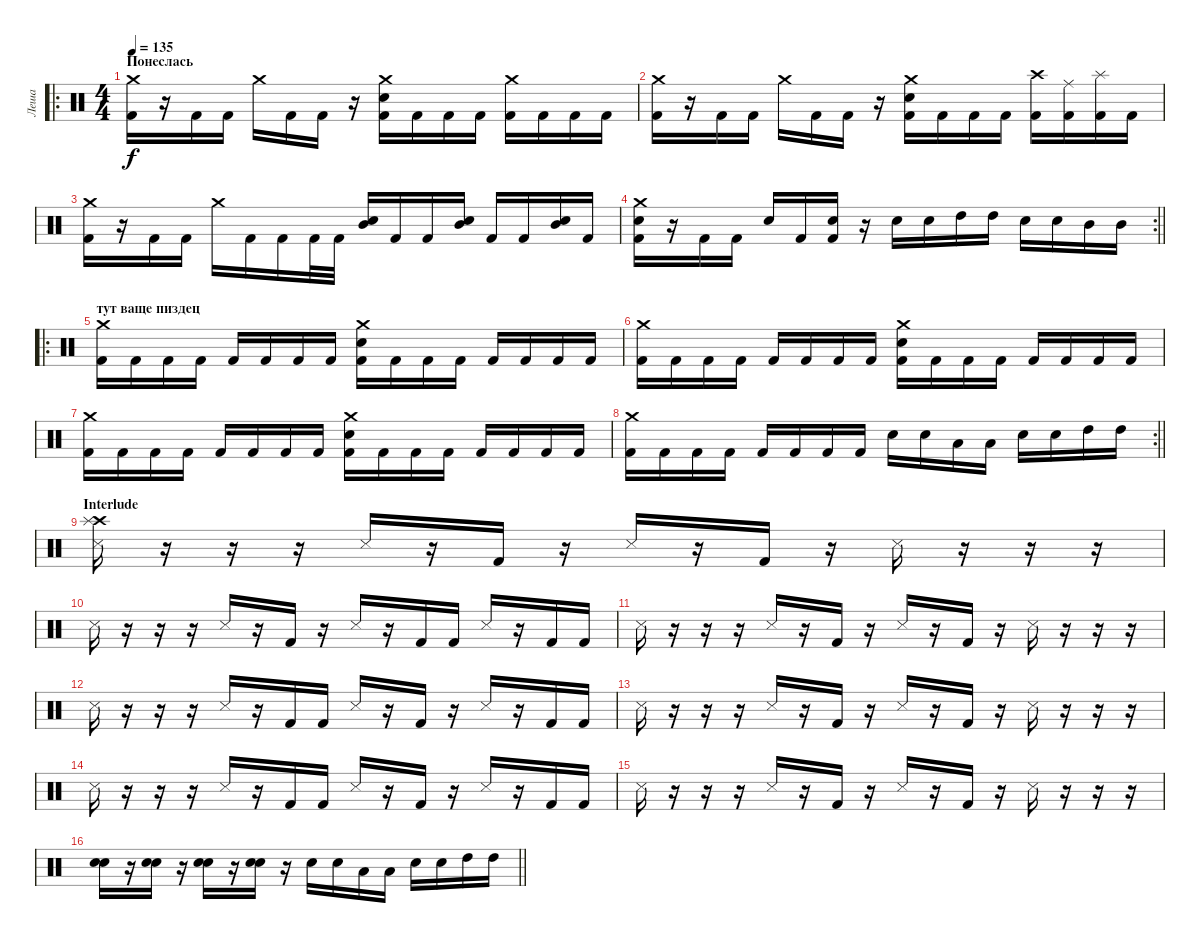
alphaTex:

\track ("Леша" "Леша") {instrument percussion}
\staff {score}
\articulation defaults
\ro
\ts (4 4)
\section ("" "Понеслась ")
\tempo 135
\clef neutral
\ks c
("Crash medium (hit)" "Kick (hit) 2").16{dy f} r.16 "Kick (hit) 2".16 "Kick (hit) 2".16 "Crash medium (hit)".16 "Kick (hit) 2".16 "Kick (hit) 2".16 r.16 ("Crash medium (hit)" "Electric Snare (hit)" "Kick (hit) 2").16 "Kick (hit) 2".16 "Kick (hit) 2".16 "Kick (hit) 2".16 ("Crash medium (hit)" "Kick (hit) 2").16 "Kick (hit) 2".16 "Kick (hit) 2".16 "Kick (hit) 2".16 |
("Crash medium (hit)" "Kick (hit) 2").16 r.16 "Kick (hit) 2".16 "Kick (hit) 2".16 "Crash medium (hit)".16 "Kick (hit) 2".16 "Kick (hit) 2".16 r.16 ("Crash medium (hit)" "Electric Snare (hit)" "Kick (hit) 2").16 "Kick (hit) 2".16 "Kick (hit) 2".16 "Kick (hit) 2".16 ("Crash high (hit)" "Kick (hit) 2").16 ("Ride (middle)" "Kick (hit) 2").16 ("Splash (hit)" "Kick (hit) 2").16 "Kick (hit) 2".16 |
("Crash medium (hit)" "Kick (hit) 2").16 r.16 "Kick (hit) 2".16 "Kick (hit) 2".16 "Crash medium (hit)".16 "Kick (hit) 2".16 "Kick (hit) 2".16 "Kick (hit) 2".32 "Kick (hit) 2".32 ("Mid Tom (hit)" "Electric Snare (hit)").16 "Kick (hit) 2".16 "Kick (hit) 2".16 ("Mid Tom (hit)" "Electric Snare (hit)").16 "Kick (hit) 2".16 "Kick (hit) 2".16 ("Mid Tom (hit)" "Electric Snare (hit)").16 "Kick (hit) 2".16 |
\rc 2
\barLineRight lightlight
("Crash medium (hit)" "Electric Snare (hit)" "Kick (hit) 2").16 r.16 "Kick (hit) 2".16 "Kick (hit) 2".16 "Electric Snare (hit)".16 "Kick (hit) 2".16 ("Electric Snare (hit)" "Kick (hit) 2").16 r.16 "Electric Snare (hit)".16 "Electric Snare (hit)".16 "High Tom (hit)".16 "High Tom (hit)".16 "Electric Snare (hit)".16 "Electric Snare (hit)".16 "Mid Tom (hit)".16 "Mid Tom (hit)".16 |
\ro
\section ("" "тут ваще пиздец")
("Crash medium (hit)" "Kick (hit) 2").16 "Kick (hit) 2".16 "Kick (hit) 2".16 "Kick (hit) 2".16 "Kick (hit) 2".16 "Kick (hit) 2".16 "Kick (hit) 2".16 "Kick (hit) 2".16 ("Crash medium (hit)" "Electric Snare (hit)" "Kick (hit) 2").16 "Kick (hit) 2".16 "Kick (hit) 2".16 "Kick (hit) 2".16 "Kick (hit) 2".16 "Kick (hit) 2".16 "Kick (hit) 2".16 "Kick (hit) 2".16 |
("Crash medium (hit)" "Kick (hit) 2").16 "Kick (hit) 2".16 "Kick (hit) 2".16 "Kick (hit) 2".16 "Kick (hit) 2".16 "Kick (hit) 2".16 "Kick (hit) 2".16 "Kick (hit) 2".16 ("Crash medium (hit)" "Electric Snare (hit)" "Kick (hit) 2").16 "Kick (hit) 2".16 "Kick (hit) 2".16 "Kick (hit) 2".16 "Kick (hit) 2".16 "Kick (hit) 2".16 "Kick (hit) 2".16 "Kick (hit) 2".16 |
("Crash medium (hit)" "Kick (hit) 2").16 "Kick (hit) 2".16 "Kick (hit) 2".16 "Kick (hit) 2".16 "Kick (hit) 2".16 "Kick (hit) 2".16 "Kick (hit) 2".16 "Kick (hit) 2".16 ("Crash medium (hit)" "Electric Snare (hit)" "Kick (hit) 2").16 "Kick (hit) 2".16 "Kick (hit) 2".16 "Kick (hit) 2".16 "Kick (hit) 2".16 "Kick (hit) 2".16 "Kick (hit) 2".16 "Kick (hit) 2".16 |
\rc 2
\barLineRight lightlight
("Crash medium (hit)" "Kick (hit) 2").16 "Kick (hit) 2".16 "Kick (hit) 2".16 "Kick (hit) 2".16 "Kick (hit) 2".16 "Kick (hit) 2".16 "Kick (hit) 2".16 "Kick (hit) 2".16 "Electric Snare (hit)".16 "Electric Snare (hit)".16 "Low Tom (hit)".16 "Low Tom (hit)".16 "Electric Snare (hit)".16 "Electric Snare (hit)".16 "High Tom (hit)".16 "High Tom (hit)".16 |
\section ("" "Interlude")
("Crash high (hit)" "Splash (hit)" "Snare (side stick) 3").16 r.16 r.16 r.16 "Snare (side stick) 3".16 r.16 "Kick (hit) 2".16 r.16 "Snare (side stick) 3".16 r.16 "Kick (hit) 2".16 r.16 "Snare (side stick) 3".16 r.16 r.16 r.16 |
"Snare (side stick) 3".16 r.16 r.16 r.16 "Snare (side stick) 3".16 r.16 "Kick (hit) 2".16 r.16 "Snare (side stick) 3".16 r.16 "Kick (hit) 2".16 "Kick (hit) 2".16 "Snare (side stick) 3".16 r.16 "Kick (hit) 2".16 "Kick (hit) 2".16 |
"Snare (side stick) 3".16 r.16 r.16 r.16 "Snare (side stick) 3".16 r.16 "Kick (hit) 2".16 r.16 "Snare (side stick) 3".16 r.16 "Kick (hit) 2".16 r.16 "Snare (side stick) 3".16 r.16 r.16 r.16 |
"Snare (side stick) 3".16 r.16 r.16 r.16 "Snare (side stick) 3".16 r.16 "Kick (hit) 2".16 "Kick (hit) 2".16 "Snare (side stick) 3".16 r.16 "Kick (hit) 2".16 r.16 "Snare (side stick) 3".16 r.16 "Kick (hit) 2".16 "Kick (hit) 2".16 |
"Snare (side stick) 3".16 r.16 r.16 r.16 "Snare (side stick) 3".16 r.16 "Kick (hit) 2".16 r.16 "Snare (side stick) 3".16 r.16 "Kick (hit) 2".16 r.16 "Snare (side stick) 3".16 r.16 r.16 r.16 |
"Snare (side stick) 3".16 r.16 r.16 r.16 "Snare (side stick) 3".16 r.16 "Kick (hit) 2".16 "Kick (hit) 2".16 "Snare (side stick) 3".16 r.16 "Kick (hit) 2".16 r.16 "Snare (side stick) 3".16 r.16 "Kick (hit) 2".16 "Kick (hit) 2".16 |
"Snare (side stick) 3".16 r.16 r.16 r.16 "Snare (side stick) 3".16 r.16 "Kick (hit) 2".16 r.16 "Snare (side stick) 3".16 r.16 "Kick (hit) 2".16 r.16 "Snare (side stick) 3".16 r.16 r.16 r.16 |
\barLineRight lightlight
("Electric Snare (hit)" "Electric Snare (hit)").16 r.16 ("Electric Snare (hit)" "Electric Snare (hit)").16 r.16 ("Electric Snare (hit)" "Electric Snare (hit)").16 r.16 ("Electric Snare (hit)" "Electric Snare (hit)").16 r.16 "Electric Snare (hit)".16 "Electric Snare (hit)".16 "Low Tom (hit)".16 "Low Tom (hit)".16 "Electric Snare (hit)".16 "Electric Snare (hit)".16 "High Tom (hit)".16 "High Tom (hit)".16
